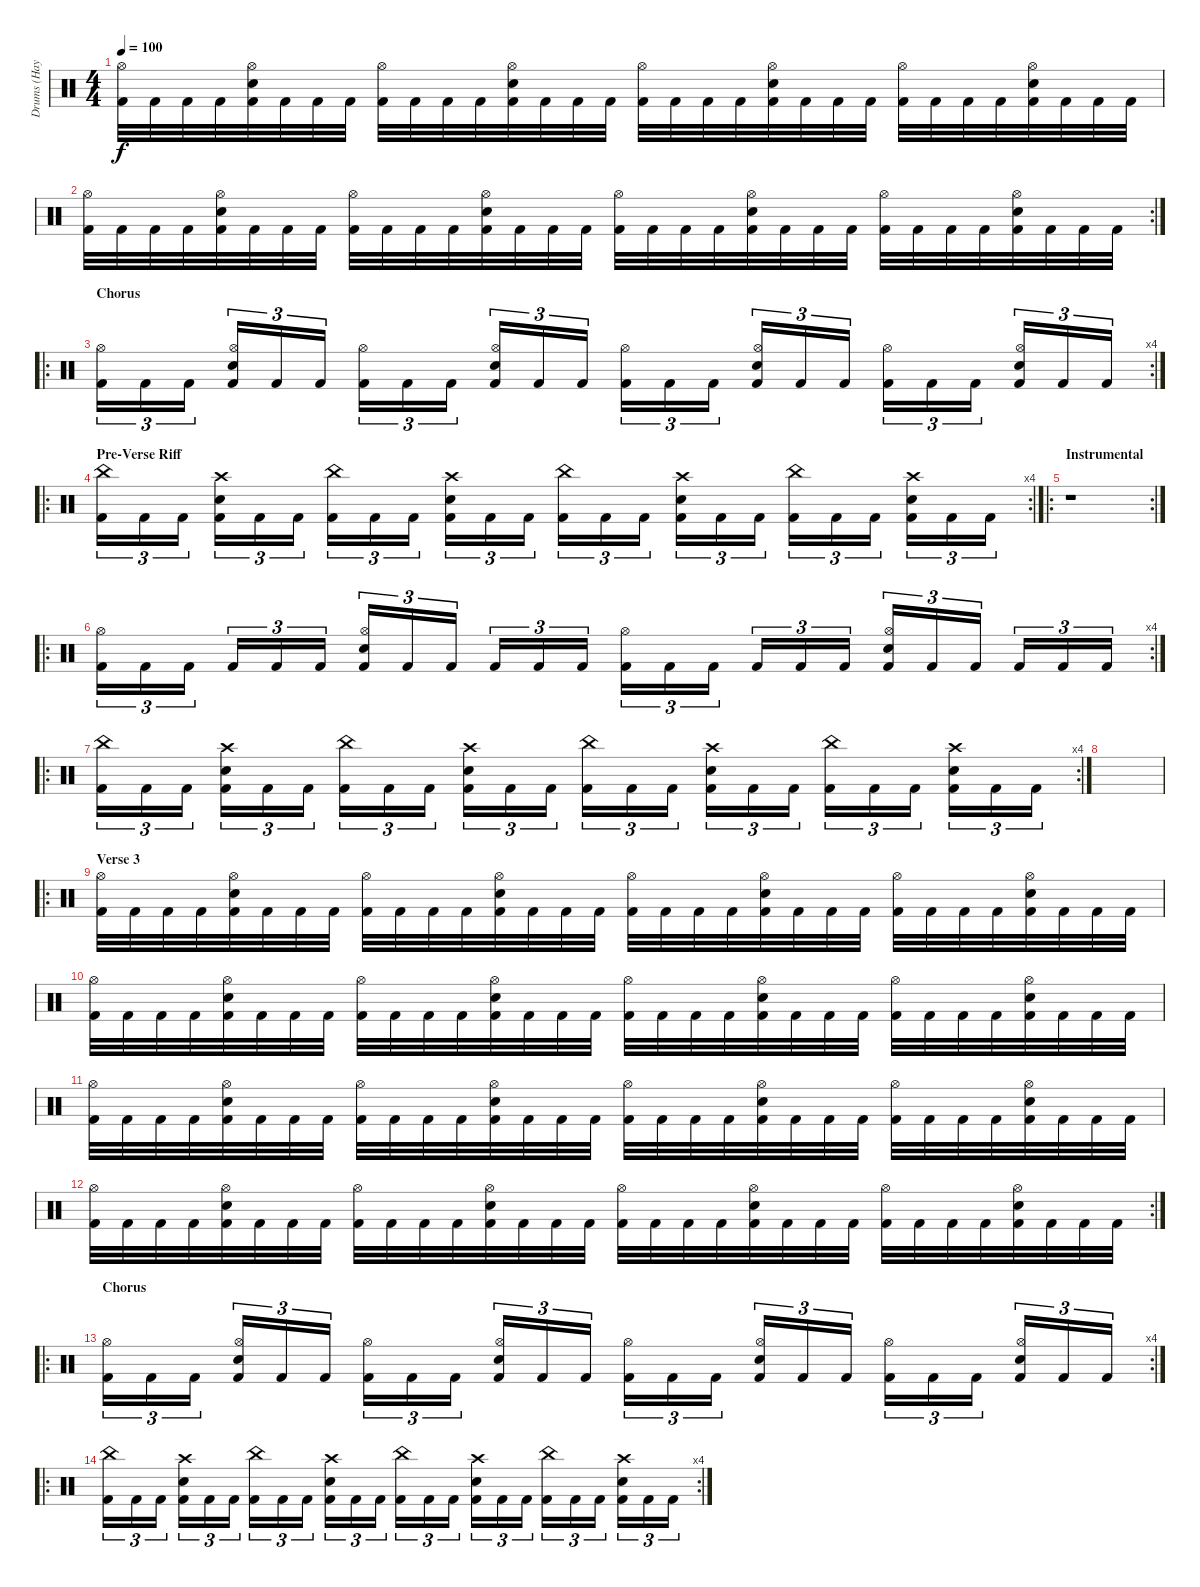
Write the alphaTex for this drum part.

\track ("Drums (Hayden)" "Drums (Hay") {instrument percussion}
\staff {score}
\articulation defaults
\ts (4 4)
\tempo 100
\clef neutral
\ks c
("Kick (hit) 2" "Hi-Hat (open)").32{dy f} "Kick (hit) 2".32 "Kick (hit) 2".32 "Kick (hit) 2".32 ("Kick (hit) 2" "Hi-Hat (open)" "Electric Snare (hit)").32 "Kick (hit) 2".32 "Kick (hit) 2".32 "Kick (hit) 2".32 ("Kick (hit) 2" "Hi-Hat (open)").32 "Kick (hit) 2".32 "Kick (hit) 2".32 "Kick (hit) 2".32 ("Kick (hit) 2" "Hi-Hat (open)" "Electric Snare (hit)").32 "Kick (hit) 2".32 "Kick (hit) 2".32 "Kick (hit) 2".32 ("Kick (hit) 2" "Hi-Hat (open)").32 "Kick (hit) 2".32 "Kick (hit) 2".32 "Kick (hit) 2".32 ("Kick (hit) 2" "Hi-Hat (open)" "Electric Snare (hit)").32 "Kick (hit) 2".32 "Kick (hit) 2".32 "Kick (hit) 2".32 ("Kick (hit) 2" "Hi-Hat (open)").32 "Kick (hit) 2".32 "Kick (hit) 2".32 "Kick (hit) 2".32 ("Kick (hit) 2" "Hi-Hat (open)" "Electric Snare (hit)").32 "Kick (hit) 2".32 "Kick (hit) 2".32 "Kick (hit) 2".32 |
\rc 2
("Kick (hit) 2" "Hi-Hat (open)").32 "Kick (hit) 2".32 "Kick (hit) 2".32 "Kick (hit) 2".32 ("Kick (hit) 2" "Hi-Hat (open)" "Electric Snare (hit)").32 "Kick (hit) 2".32 "Kick (hit) 2".32 "Kick (hit) 2".32 ("Kick (hit) 2" "Hi-Hat (open)").32 "Kick (hit) 2".32 "Kick (hit) 2".32 "Kick (hit) 2".32 ("Kick (hit) 2" "Hi-Hat (open)" "Electric Snare (hit)").32 "Kick (hit) 2".32 "Kick (hit) 2".32 "Kick (hit) 2".32 ("Kick (hit) 2" "Hi-Hat (open)").32 "Kick (hit) 2".32 "Kick (hit) 2".32 "Kick (hit) 2".32 ("Kick (hit) 2" "Hi-Hat (open)" "Electric Snare (hit)").32 "Kick (hit) 2".32 "Kick (hit) 2".32 "Kick (hit) 2".32 ("Kick (hit) 2" "Hi-Hat (open)").32 "Kick (hit) 2".32 "Kick (hit) 2".32 "Kick (hit) 2".32 ("Kick (hit) 2" "Hi-Hat (open)" "Electric Snare (hit)").32 "Kick (hit) 2".32 "Kick (hit) 2".32 "Kick (hit) 2".32 |
\ro
\rc 4
\section ("" "Chorus")
("Kick (hit) 2" "Hi-Hat (open)").16{tu (3 2)} "Kick (hit) 2".16{tu (3 2)} "Kick (hit) 2".16{tu (3 2)} ("Kick (hit) 2" "Hi-Hat (open)" "Electric Snare (hit)").16{tu (3 2)} "Kick (hit) 2".16{tu (3 2)} "Kick (hit) 2".16{tu (3 2)} ("Kick (hit) 2" "Hi-Hat (open)").16{tu (3 2)} "Kick (hit) 2".16{tu (3 2)} "Kick (hit) 2".16{tu (3 2)} ("Kick (hit) 2" "Hi-Hat (open)" "Electric Snare (hit)").16{tu (3 2)} "Kick (hit) 2".16{tu (3 2)} "Kick (hit) 2".16{tu (3 2)} ("Kick (hit) 2" "Hi-Hat (open)").16{tu (3 2)} "Kick (hit) 2".16{tu (3 2)} "Kick (hit) 2".16{tu (3 2)} ("Kick (hit) 2" "Hi-Hat (open)" "Electric Snare (hit)").16{tu (3 2)} "Kick (hit) 2".16{tu (3 2)} "Kick (hit) 2".16{tu (3 2)} ("Kick (hit) 2" "Hi-Hat (open)").16{tu (3 2)} "Kick (hit) 2".16{tu (3 2)} "Kick (hit) 2".16{tu (3 2)} ("Kick (hit) 2" "Hi-Hat (open)" "Electric Snare (hit)").16{tu (3 2)} "Kick (hit) 2".16{tu (3 2)} "Kick (hit) 2".16{tu (3 2)} |
\ro
\rc 4
\section ("" "Pre-Verse Riff")
("Kick (hit) 2" "China (hit)").16{tu (3 2)} "Kick (hit) 2".16{tu (3 2)} "Kick (hit) 2".16{tu (3 2)} ("Kick (hit) 2" "Crash high (hit)" "Electric Snare (hit)").16{tu (3 2)} "Kick (hit) 2".16{tu (3 2)} "Kick (hit) 2".16{tu (3 2)} ("Kick (hit) 2" "China (hit)").16{tu (3 2)} "Kick (hit) 2".16{tu (3 2)} "Kick (hit) 2".16{tu (3 2)} ("Kick (hit) 2" "Crash high (hit)" "Electric Snare (hit)").16{tu (3 2)} "Kick (hit) 2".16{tu (3 2)} "Kick (hit) 2".16{tu (3 2)} ("Kick (hit) 2" "China (hit)").16{tu (3 2)} "Kick (hit) 2".16{tu (3 2)} "Kick (hit) 2".16{tu (3 2)} ("Kick (hit) 2" "Crash high (hit)" "Electric Snare (hit)").16{tu (3 2)} "Kick (hit) 2".16{tu (3 2)} "Kick (hit) 2".16{tu (3 2)} ("Kick (hit) 2" "China (hit)").16{tu (3 2)} "Kick (hit) 2".16{tu (3 2)} "Kick (hit) 2".16{tu (3 2)} ("Kick (hit) 2" "Crash high (hit)" "Electric Snare (hit)").16{tu (3 2)} "Kick (hit) 2".16{tu (3 2)} "Kick (hit) 2".16{tu (3 2)} |
\ro
\rc 2
\section ("" "Instrumental")
r.1 |
\ro
\rc 4
("Kick (hit) 2" "Hi-Hat (open)").16{tu (3 2)} "Kick (hit) 2".16{tu (3 2)} "Kick (hit) 2".16{tu (3 2)} "Kick (hit) 2".16{tu (3 2)} "Kick (hit) 2".16{tu (3 2)} "Kick (hit) 2".16{tu (3 2)} ("Kick (hit) 2" "Hi-Hat (open)" "Electric Snare (hit)").16{tu (3 2)} "Kick (hit) 2".16{tu (3 2)} "Kick (hit) 2".16{tu (3 2)} "Kick (hit) 2".16{tu (3 2)} "Kick (hit) 2".16{tu (3 2)} "Kick (hit) 2".16{tu (3 2)} ("Kick (hit) 2" "Hi-Hat (open)").16{tu (3 2)} "Kick (hit) 2".16{tu (3 2)} "Kick (hit) 2".16{tu (3 2)} "Kick (hit) 2".16{tu (3 2)} "Kick (hit) 2".16{tu (3 2)} "Kick (hit) 2".16{tu (3 2)} ("Kick (hit) 2" "Hi-Hat (open)" "Electric Snare (hit)").16{tu (3 2)} "Kick (hit) 2".16{tu (3 2)} "Kick (hit) 2".16{tu (3 2)} "Kick (hit) 2".16{tu (3 2)} "Kick (hit) 2".16{tu (3 2)} "Kick (hit) 2".16{tu (3 2)} |
\ro
\rc 4
("Kick (hit) 2" "China (hit)").16{tu (3 2)} "Kick (hit) 2".16{tu (3 2)} "Kick (hit) 2".16{tu (3 2)} ("Kick (hit) 2" "Crash high (hit)" "Electric Snare (hit)").16{tu (3 2)} "Kick (hit) 2".16{tu (3 2)} "Kick (hit) 2".16{tu (3 2)} ("Kick (hit) 2" "China (hit)").16{tu (3 2)} "Kick (hit) 2".16{tu (3 2)} "Kick (hit) 2".16{tu (3 2)} ("Kick (hit) 2" "Crash high (hit)" "Electric Snare (hit)").16{tu (3 2)} "Kick (hit) 2".16{tu (3 2)} "Kick (hit) 2".16{tu (3 2)} ("Kick (hit) 2" "China (hit)").16{tu (3 2)} "Kick (hit) 2".16{tu (3 2)} "Kick (hit) 2".16{tu (3 2)} ("Kick (hit) 2" "Crash high (hit)" "Electric Snare (hit)").16{tu (3 2)} "Kick (hit) 2".16{tu (3 2)} "Kick (hit) 2".16{tu (3 2)} ("Kick (hit) 2" "China (hit)").16{tu (3 2)} "Kick (hit) 2".16{tu (3 2)} "Kick (hit) 2".16{tu (3 2)} ("Kick (hit) 2" "Crash high (hit)" "Electric Snare (hit)").16{tu (3 2)} "Kick (hit) 2".16{tu (3 2)} "Kick (hit) 2".16{tu (3 2)} |
|
\ro
\section ("" "Verse 3")
("Kick (hit) 2" "Hi-Hat (open)").32 "Kick (hit) 2".32 "Kick (hit) 2".32 "Kick (hit) 2".32 ("Kick (hit) 2" "Hi-Hat (open)" "Electric Snare (hit)").32 "Kick (hit) 2".32 "Kick (hit) 2".32 "Kick (hit) 2".32 ("Kick (hit) 2" "Hi-Hat (open)").32 "Kick (hit) 2".32 "Kick (hit) 2".32 "Kick (hit) 2".32 ("Kick (hit) 2" "Hi-Hat (open)" "Electric Snare (hit)").32 "Kick (hit) 2".32 "Kick (hit) 2".32 "Kick (hit) 2".32 ("Kick (hit) 2" "Hi-Hat (open)").32 "Kick (hit) 2".32 "Kick (hit) 2".32 "Kick (hit) 2".32 ("Kick (hit) 2" "Hi-Hat (open)" "Electric Snare (hit)").32 "Kick (hit) 2".32 "Kick (hit) 2".32 "Kick (hit) 2".32 ("Kick (hit) 2" "Hi-Hat (open)").32 "Kick (hit) 2".32 "Kick (hit) 2".32 "Kick (hit) 2".32 ("Kick (hit) 2" "Hi-Hat (open)" "Electric Snare (hit)").32 "Kick (hit) 2".32 "Kick (hit) 2".32 "Kick (hit) 2".32 |
("Kick (hit) 2" "Hi-Hat (open)").32 "Kick (hit) 2".32 "Kick (hit) 2".32 "Kick (hit) 2".32 ("Kick (hit) 2" "Hi-Hat (open)" "Electric Snare (hit)").32 "Kick (hit) 2".32 "Kick (hit) 2".32 "Kick (hit) 2".32 ("Kick (hit) 2" "Hi-Hat (open)").32 "Kick (hit) 2".32 "Kick (hit) 2".32 "Kick (hit) 2".32 ("Kick (hit) 2" "Hi-Hat (open)" "Electric Snare (hit)").32 "Kick (hit) 2".32 "Kick (hit) 2".32 "Kick (hit) 2".32 ("Kick (hit) 2" "Hi-Hat (open)").32 "Kick (hit) 2".32 "Kick (hit) 2".32 "Kick (hit) 2".32 ("Kick (hit) 2" "Hi-Hat (open)" "Electric Snare (hit)").32 "Kick (hit) 2".32 "Kick (hit) 2".32 "Kick (hit) 2".32 ("Kick (hit) 2" "Hi-Hat (open)").32 "Kick (hit) 2".32 "Kick (hit) 2".32 "Kick (hit) 2".32 ("Kick (hit) 2" "Hi-Hat (open)" "Electric Snare (hit)").32 "Kick (hit) 2".32 "Kick (hit) 2".32 "Kick (hit) 2".32 |
("Kick (hit) 2" "Hi-Hat (open)").32 "Kick (hit) 2".32 "Kick (hit) 2".32 "Kick (hit) 2".32 ("Kick (hit) 2" "Hi-Hat (open)" "Electric Snare (hit)").32 "Kick (hit) 2".32 "Kick (hit) 2".32 "Kick (hit) 2".32 ("Kick (hit) 2" "Hi-Hat (open)").32 "Kick (hit) 2".32 "Kick (hit) 2".32 "Kick (hit) 2".32 ("Kick (hit) 2" "Hi-Hat (open)" "Electric Snare (hit)").32 "Kick (hit) 2".32 "Kick (hit) 2".32 "Kick (hit) 2".32 ("Kick (hit) 2" "Hi-Hat (open)").32 "Kick (hit) 2".32 "Kick (hit) 2".32 "Kick (hit) 2".32 ("Kick (hit) 2" "Hi-Hat (open)" "Electric Snare (hit)").32 "Kick (hit) 2".32 "Kick (hit) 2".32 "Kick (hit) 2".32 ("Kick (hit) 2" "Hi-Hat (open)").32 "Kick (hit) 2".32 "Kick (hit) 2".32 "Kick (hit) 2".32 ("Kick (hit) 2" "Hi-Hat (open)" "Electric Snare (hit)").32 "Kick (hit) 2".32 "Kick (hit) 2".32 "Kick (hit) 2".32 |
\rc 2
("Kick (hit) 2" "Hi-Hat (open)").32 "Kick (hit) 2".32 "Kick (hit) 2".32 "Kick (hit) 2".32 ("Kick (hit) 2" "Hi-Hat (open)" "Electric Snare (hit)").32 "Kick (hit) 2".32 "Kick (hit) 2".32 "Kick (hit) 2".32 ("Kick (hit) 2" "Hi-Hat (open)").32 "Kick (hit) 2".32 "Kick (hit) 2".32 "Kick (hit) 2".32 ("Kick (hit) 2" "Hi-Hat (open)" "Electric Snare (hit)").32 "Kick (hit) 2".32 "Kick (hit) 2".32 "Kick (hit) 2".32 ("Kick (hit) 2" "Hi-Hat (open)").32 "Kick (hit) 2".32 "Kick (hit) 2".32 "Kick (hit) 2".32 ("Kick (hit) 2" "Hi-Hat (open)" "Electric Snare (hit)").32 "Kick (hit) 2".32 "Kick (hit) 2".32 "Kick (hit) 2".32 ("Kick (hit) 2" "Hi-Hat (open)").32 "Kick (hit) 2".32 "Kick (hit) 2".32 "Kick (hit) 2".32 ("Kick (hit) 2" "Hi-Hat (open)" "Electric Snare (hit)").32 "Kick (hit) 2".32 "Kick (hit) 2".32 "Kick (hit) 2".32 |
\ro
\rc 4
\section ("" "Chorus")
("Kick (hit) 2" "Hi-Hat (open)").16{tu (3 2)} "Kick (hit) 2".16{tu (3 2)} "Kick (hit) 2".16{tu (3 2)} ("Kick (hit) 2" "Hi-Hat (open)" "Electric Snare (hit)").16{tu (3 2)} "Kick (hit) 2".16{tu (3 2)} "Kick (hit) 2".16{tu (3 2)} ("Kick (hit) 2" "Hi-Hat (open)").16{tu (3 2)} "Kick (hit) 2".16{tu (3 2)} "Kick (hit) 2".16{tu (3 2)} ("Kick (hit) 2" "Hi-Hat (open)" "Electric Snare (hit)").16{tu (3 2)} "Kick (hit) 2".16{tu (3 2)} "Kick (hit) 2".16{tu (3 2)} ("Kick (hit) 2" "Hi-Hat (open)").16{tu (3 2)} "Kick (hit) 2".16{tu (3 2)} "Kick (hit) 2".16{tu (3 2)} ("Kick (hit) 2" "Hi-Hat (open)" "Electric Snare (hit)").16{tu (3 2)} "Kick (hit) 2".16{tu (3 2)} "Kick (hit) 2".16{tu (3 2)} ("Kick (hit) 2" "Hi-Hat (open)").16{tu (3 2)} "Kick (hit) 2".16{tu (3 2)} "Kick (hit) 2".16{tu (3 2)} ("Kick (hit) 2" "Hi-Hat (open)" "Electric Snare (hit)").16{tu (3 2)} "Kick (hit) 2".16{tu (3 2)} "Kick (hit) 2".16{tu (3 2)} |
\ro
\rc 4
("Kick (hit) 2" "China (hit)").16{tu (3 2)} "Kick (hit) 2".16{tu (3 2)} "Kick (hit) 2".16{tu (3 2)} ("Kick (hit) 2" "Crash high (hit)" "Electric Snare (hit)").16{tu (3 2)} "Kick (hit) 2".16{tu (3 2)} "Kick (hit) 2".16{tu (3 2)} ("Kick (hit) 2" "China (hit)").16{tu (3 2)} "Kick (hit) 2".16{tu (3 2)} "Kick (hit) 2".16{tu (3 2)} ("Kick (hit) 2" "Crash high (hit)" "Electric Snare (hit)").16{tu (3 2)} "Kick (hit) 2".16{tu (3 2)} "Kick (hit) 2".16{tu (3 2)} ("Kick (hit) 2" "China (hit)").16{tu (3 2)} "Kick (hit) 2".16{tu (3 2)} "Kick (hit) 2".16{tu (3 2)} ("Kick (hit) 2" "Crash high (hit)" "Electric Snare (hit)").16{tu (3 2)} "Kick (hit) 2".16{tu (3 2)} "Kick (hit) 2".16{tu (3 2)} ("Kick (hit) 2" "China (hit)").16{tu (3 2)} "Kick (hit) 2".16{tu (3 2)} "Kick (hit) 2".16{tu (3 2)} ("Kick (hit) 2" "Crash high (hit)" "Electric Snare (hit)").16{tu (3 2)} "Kick (hit) 2".16{tu (3 2)} "Kick (hit) 2".16{tu (3 2)}
